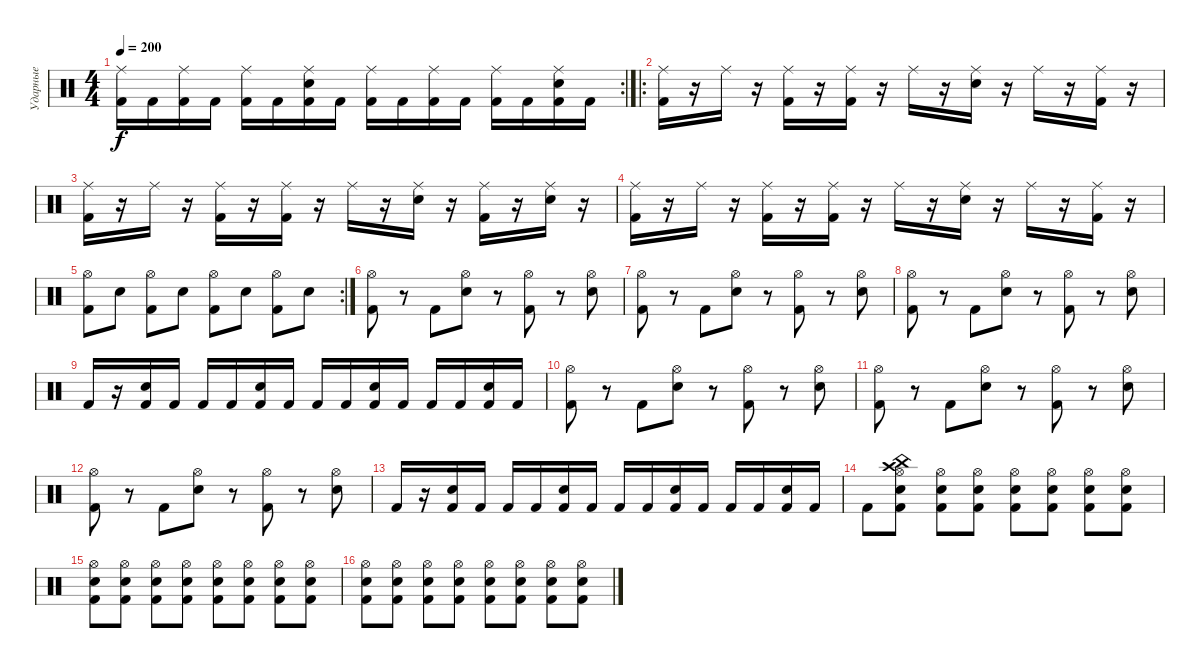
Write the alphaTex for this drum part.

\track ("Ударные" "Ударные") {instrument percussion}
\staff {score}
\articulation defaults
\rc 2
\ts (4 4)
\tempo 200
\clef neutral
\ks c
("Kick (hit) 2" "Ride (middle)").16{dy f} "Kick (hit) 2".16 ("Kick (hit) 2" "Ride (middle)").16 "Kick (hit) 2".16 ("Kick (hit) 2" "Ride (middle)").16 "Kick (hit) 2".16 ("Kick (hit) 2" "Electric Snare (hit)" "Ride (middle)").16 "Kick (hit) 2".16 ("Kick (hit) 2" "Ride (middle)").16 "Kick (hit) 2".16 ("Kick (hit) 2" "Ride (middle)").16 "Kick (hit) 2".16 ("Kick (hit) 2" "Ride (middle)").16 "Kick (hit) 2".16 ("Kick (hit) 2" "Electric Snare (hit)" "Ride (middle)").16 "Kick (hit) 2".16 |
\ro
("Kick (hit) 2" "Ride (middle)").16 r.16 "Ride (middle)".16 r.16 ("Kick (hit) 2" "Ride (middle)").16 r.16 ("Kick (hit) 2" "Ride (middle)").16 r.16 "Ride (middle)".16 r.16 ("Electric Snare (hit)" "Ride (middle)").16 r.16 "Ride (middle)".16 r.16 ("Kick (hit) 2" "Ride (middle)").16 r.16 |
("Kick (hit) 2" "Ride (middle)").16 r.16 "Ride (middle)".16 r.16 ("Kick (hit) 2" "Ride (middle)").16 r.16 ("Kick (hit) 2" "Ride (middle)").16 r.16 "Ride (middle)".16 r.16 ("Electric Snare (hit)" "Ride (middle)").16 r.16 ("Kick (hit) 2" "Ride (middle)").16 r.16 ("Electric Snare (hit)" "Ride (middle)").16 r.16 |
("Kick (hit) 2" "Ride (middle)").16 r.16 "Ride (middle)".16 r.16 ("Kick (hit) 2" "Ride (middle)").16 r.16 ("Kick (hit) 2" "Ride (middle)").16 r.16 "Ride (middle)".16 r.16 ("Electric Snare (hit)" "Ride (middle)").16 r.16 "Ride (middle)".16 r.16 ("Kick (hit) 2" "Ride (middle)").16 r.16 |
\rc 2
("Kick (hit) 2" "Hi-Hat (open)").8 "Electric Snare (hit)".8 ("Kick (hit) 2" "Hi-Hat (open)").8 "Electric Snare (hit)".8 ("Kick (hit) 2" "Hi-Hat (open)").8 "Electric Snare (hit)".8 ("Kick (hit) 2" "Hi-Hat (open)").8 "Electric Snare (hit)".8 |
("Kick (hit) 2" "Hi-Hat (open)").8 r.8 "Kick (hit) 2".8 ("Electric Snare (hit)" "Hi-Hat (open)").8 r.8 ("Kick (hit) 2" "Hi-Hat (open)").8 r.8 ("Electric Snare (hit)" "Hi-Hat (open)").8 |
("Kick (hit) 2" "Hi-Hat (open)").8 r.8 "Kick (hit) 2".8 ("Electric Snare (hit)" "Hi-Hat (open)").8 r.8 ("Kick (hit) 2" "Hi-Hat (open)").8 r.8 ("Electric Snare (hit)" "Hi-Hat (open)").8 |
("Kick (hit) 2" "Hi-Hat (open)").8 r.8 "Kick (hit) 2".8 ("Electric Snare (hit)" "Hi-Hat (open)").8 r.8 ("Kick (hit) 2" "Hi-Hat (open)").8 r.8 ("Electric Snare (hit)" "Hi-Hat (open)").8 |
"Kick (hit) 2".16 r.16 ("Kick (hit) 2" "Electric Snare (hit)").16 "Kick (hit) 2".16 "Kick (hit) 2".16 "Kick (hit) 2".16 ("Kick (hit) 2" "Electric Snare (hit)").16 "Kick (hit) 2".16 "Kick (hit) 2".16 "Kick (hit) 2".16 ("Kick (hit) 2" "Electric Snare (hit)").16 "Kick (hit) 2".16 "Kick (hit) 2".16 "Kick (hit) 2".16 ("Kick (hit) 2" "Electric Snare (hit)").16 "Kick (hit) 2".16 |
("Kick (hit) 2" "Hi-Hat (open)").8 r.8 "Kick (hit) 2".8 ("Electric Snare (hit)" "Hi-Hat (open)").8 r.8 ("Kick (hit) 2" "Hi-Hat (open)").8 r.8 ("Electric Snare (hit)" "Hi-Hat (open)").8 |
("Kick (hit) 2" "Hi-Hat (open)").8 r.8 "Kick (hit) 2".8 ("Electric Snare (hit)" "Hi-Hat (open)").8 r.8 ("Kick (hit) 2" "Hi-Hat (open)").8 r.8 ("Electric Snare (hit)" "Hi-Hat (open)").8 |
("Kick (hit) 2" "Hi-Hat (open)").8 r.8 "Kick (hit) 2".8 ("Electric Snare (hit)" "Hi-Hat (open)").8 r.8 ("Kick (hit) 2" "Hi-Hat (open)").8 r.8 ("Electric Snare (hit)" "Hi-Hat (open)").8 |
"Kick (hit) 2".16 r.16 ("Kick (hit) 2" "Electric Snare (hit)").16 "Kick (hit) 2".16 "Kick (hit) 2".16 "Kick (hit) 2".16 ("Kick (hit) 2" "Electric Snare (hit)").16 "Kick (hit) 2".16 "Kick (hit) 2".16 "Kick (hit) 2".16 ("Kick (hit) 2" "Electric Snare (hit)").16 "Kick (hit) 2".16 "Kick (hit) 2".16 "Kick (hit) 2".16 ("Kick (hit) 2" "Electric Snare (hit)").16 "Kick (hit) 2".16 |
"Kick (hit) 2".8 ("Kick (hit) 2" "Electric Snare (hit)" "Hi-Hat (open)" "Crash high (hit)" "China (hit)").8 ("Hi-Hat (open)" "Kick (hit) 2" "Electric Snare (hit)").8 ("Electric Snare (hit)" "Kick (hit) 2" "Hi-Hat (open)").8 ("Hi-Hat (open)" "Kick (hit) 2" "Electric Snare (hit)").8 ("Electric Snare (hit)" "Kick (hit) 2" "Hi-Hat (open)").8 ("Hi-Hat (open)" "Kick (hit) 2" "Electric Snare (hit)").8 ("Electric Snare (hit)" "Kick (hit) 2" "Hi-Hat (open)").8 |
("Electric Snare (hit)" "Hi-Hat (open)" "Kick (hit) 2").8 ("Kick (hit) 2" "Electric Snare (hit)" "Hi-Hat (open)").8 ("Hi-Hat (open)" "Kick (hit) 2" "Electric Snare (hit)").8 ("Electric Snare (hit)" "Kick (hit) 2" "Hi-Hat (open)").8 ("Hi-Hat (open)" "Kick (hit) 2" "Electric Snare (hit)").8 ("Electric Snare (hit)" "Kick (hit) 2" "Hi-Hat (open)").8 ("Hi-Hat (open)" "Kick (hit) 2" "Electric Snare (hit)").8 ("Electric Snare (hit)" "Kick (hit) 2" "Hi-Hat (open)").8 |
("Electric Snare (hit)" "Hi-Hat (open)" "Kick (hit) 2").8 ("Kick (hit) 2" "Electric Snare (hit)" "Hi-Hat (open)").8 ("Hi-Hat (open)" "Kick (hit) 2" "Electric Snare (hit)").8 ("Electric Snare (hit)" "Kick (hit) 2" "Hi-Hat (open)").8 ("Hi-Hat (open)" "Kick (hit) 2" "Electric Snare (hit)").8 ("Electric Snare (hit)" "Kick (hit) 2" "Hi-Hat (open)").8 ("Hi-Hat (open)" "Kick (hit) 2" "Electric Snare (hit)").8 ("Electric Snare (hit)" "Kick (hit) 2" "Hi-Hat (open)").8
